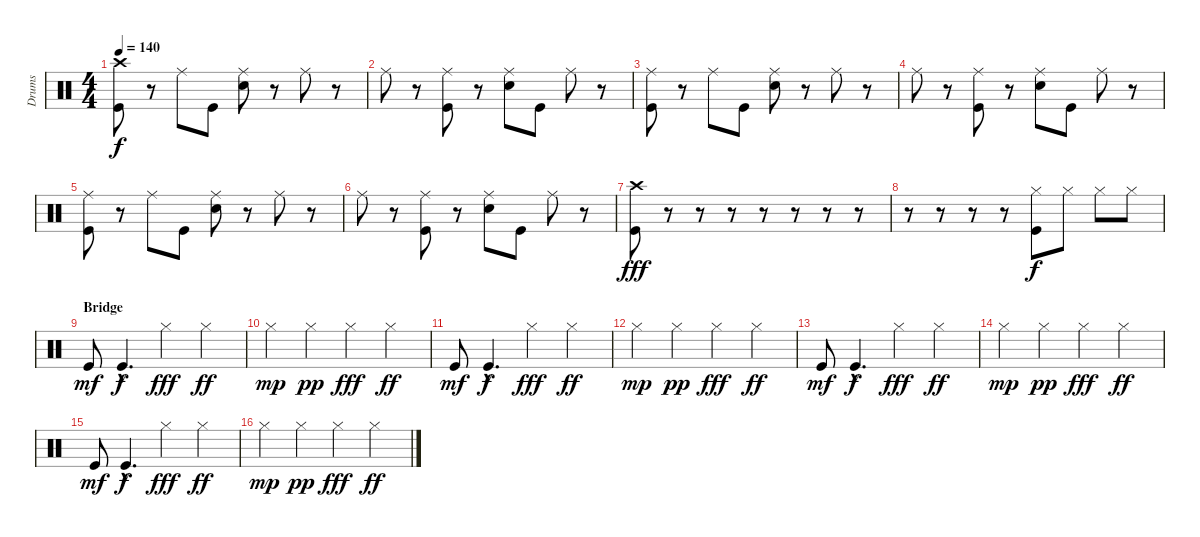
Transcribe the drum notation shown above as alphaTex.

\track ("Drums" "Drums") {instrument percussion}
\staff {score}
\articulation defaults
\ts (4 4)
\tempo 140
\clef neutral
\ks c
("Crash high (hit)" "Kick (hit)").8{dy f} r.8 "Ride (middle)".8 "Kick (hit)".8 ("Ride (middle)" "Snare (hit) 2").8 r.8 "Ride (middle)".8 r.8 |
"Ride (middle)".8 r.8 ("Ride (middle)" "Kick (hit)").8 r.8 ("Ride (middle)" "Snare (hit) 2").8 "Kick (hit)".8 "Ride (middle)".8 r.8 |
("Ride (middle)" "Kick (hit)").8 r.8 "Ride (middle)".8 "Kick (hit)".8 ("Ride (middle)" "Snare (hit) 2").8 r.8 "Ride (middle)".8 r.8 |
"Ride (middle)".8 r.8 ("Ride (middle)" "Kick (hit)").8 r.8 ("Ride (middle)" "Snare (hit) 2").8 "Kick (hit)".8 "Ride (middle)".8 r.8 |
("Ride (middle)" "Kick (hit)").8 r.8 "Ride (middle)".8 "Kick (hit)".8 ("Ride (middle)" "Snare (hit) 2").8 r.8 "Ride (middle)".8 r.8 |
"Ride (middle)".8 r.8 ("Ride (middle)" "Kick (hit)").8 r.8 ("Ride (middle)" "Snare (hit) 2").8 "Kick (hit)".8 "Ride (middle)".8 r.8 |
("Crash high (hit)" "Kick (hit)").8{dy fff} r.8 r.8 r.8 r.8 r.8 r.8 r.8 |
r.8 r.8 r.8 r.8 ("Hi-Hat (closed)" "Kick (hit)").8{dy f} "Hi-Hat (closed)".8 "Hi-Hat (closed)".8 "Hi-Hat (closed)".8 |
\section ("" "Bridge")
"Kick (hit)".8{dy mf} "Kick (hit)"{hac}.4{d dy f} "Hi-Hat (closed)".4{dy fff} "Hi-Hat (closed)".4{dy ff} |
"Hi-Hat (closed)".4{dy mp} "Hi-Hat (closed)".4{dy pp} "Hi-Hat (closed)".4{dy fff} "Hi-Hat (closed)".4{dy ff} |
"Kick (hit)".8{dy mf} "Kick (hit)"{hac}.4{d dy f} "Hi-Hat (closed)".4{dy fff} "Hi-Hat (closed)".4{dy ff} |
"Hi-Hat (closed)".4{dy mp} "Hi-Hat (closed)".4{dy pp} "Hi-Hat (closed)".4{dy fff} "Hi-Hat (closed)".4{dy ff} |
"Kick (hit)".8{dy mf} "Kick (hit)"{hac}.4{d dy f} "Hi-Hat (closed)".4{dy fff} "Hi-Hat (closed)".4{dy ff} |
"Hi-Hat (closed)".4{dy mp} "Hi-Hat (closed)".4{dy pp} "Hi-Hat (closed)".4{dy fff} "Hi-Hat (closed)".4{dy ff} |
"Kick (hit)".8{dy mf} "Kick (hit)"{hac}.4{d dy f} "Hi-Hat (closed)".4{dy fff} "Hi-Hat (closed)".4{dy ff} |
"Hi-Hat (closed)".4{dy mp} "Hi-Hat (closed)".4{dy pp} "Hi-Hat (closed)".4{dy fff} "Hi-Hat (closed)".4{dy ff}
